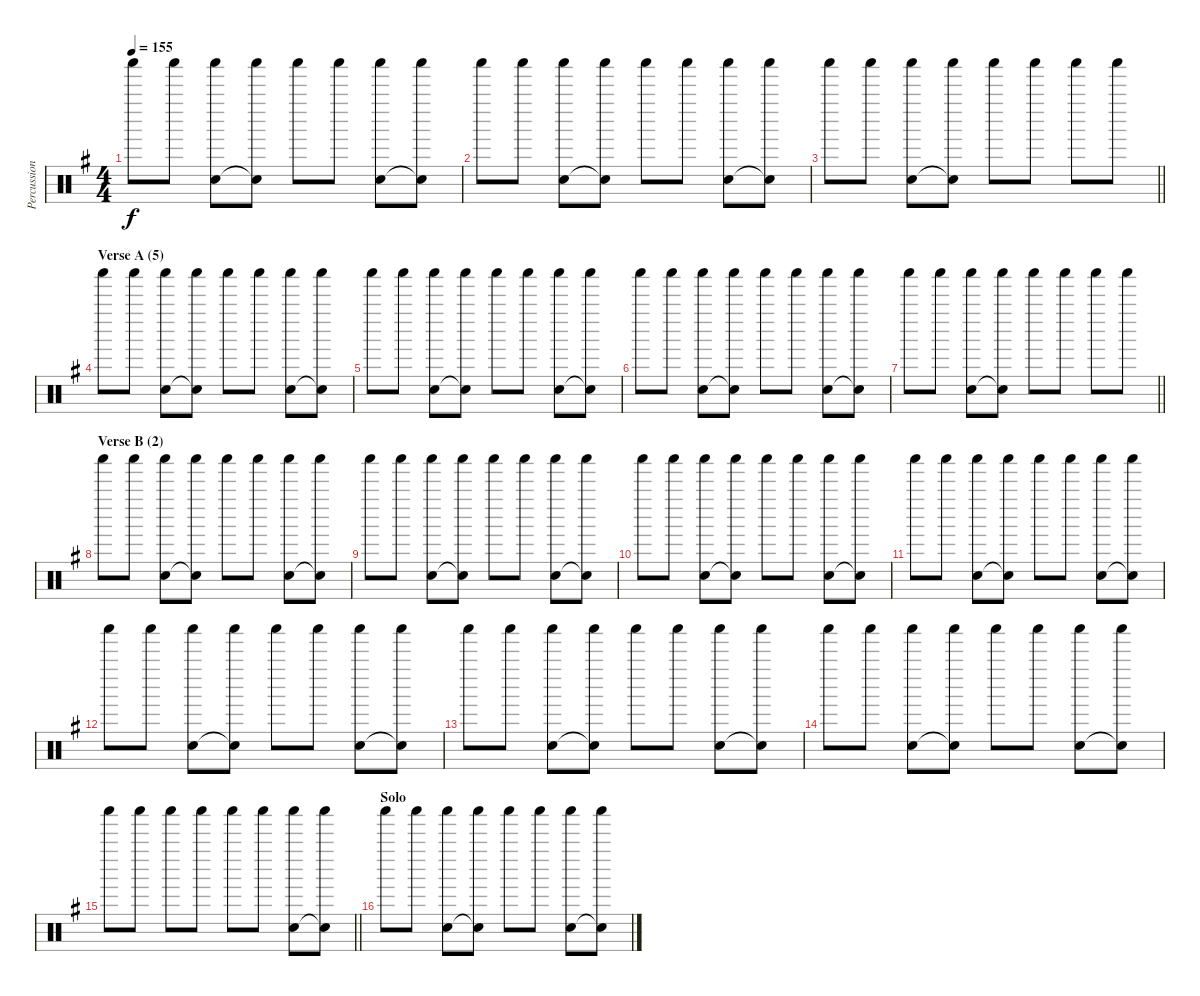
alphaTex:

\track ("Percussion" "Percussion") {instrument percussion}
\staff {score}
\articulation defaults
\ts (4 4)
\tempo 155
\clef neutral
\ks eminor "Shaker (hit)".8{dy f} "Shaker (hit)".8
("Hand Clap (hit)" "Shaker (hit)").8 ("Snare (hit)"{t} "Shaker (hit)").8 "Shaker (hit)".8 "Shaker (hit)".8 ("Hand Clap (hit)" "Shaker (hit)").8 ("Snare (hit)"{t} "Shaker (hit)").8 |
"Shaker (hit)".8 "Shaker (hit)".8 ("Hand Clap (hit)" "Shaker (hit)").8 ("Snare (hit)"{t} "Shaker (hit)").8 "Shaker (hit)".8 "Shaker (hit)".8 ("Hand Clap (hit)" "Shaker (hit)").8 ("Snare (hit)"{t} "Shaker (hit)").8 |
\barLineRight lightlight "Shaker (hit)".8 "Shaker (hit)".8
("Hand Clap (hit)" "Shaker (hit)").8 ("Snare (hit)"{t} "Shaker (hit)").8 "Shaker (hit)".8 "Shaker (hit)".8 "Shaker (hit)".8 "Shaker (hit)".8 |
\section ("" "Verse A (5)")
"Shaker (hit)".8 "Shaker (hit)".8 ("Hand Clap (hit)" "Shaker (hit)").8 ("Snare (hit)"{t} "Shaker (hit)").8 "Shaker (hit)".8 "Shaker (hit)".8 ("Hand Clap (hit)" "Shaker (hit)").8 ("Snare (hit)"{t} "Shaker (hit)").8 |
"Shaker (hit)".8 "Shaker (hit)".8 ("Hand Clap (hit)" "Shaker (hit)").8 ("Snare (hit)"{t} "Shaker (hit)").8 "Shaker (hit)".8 "Shaker (hit)".8 ("Hand Clap (hit)" "Shaker (hit)").8 ("Snare (hit)"{t} "Shaker (hit)").8 |
"Shaker (hit)".8 "Shaker (hit)".8 ("Hand Clap (hit)" "Shaker (hit)").8 ("Snare (hit)"{t} "Shaker (hit)").8 "Shaker (hit)".8 "Shaker (hit)".8 ("Hand Clap (hit)" "Shaker (hit)").8 ("Snare (hit)"{t} "Shaker (hit)").8 |
\barLineRight lightlight "Shaker (hit)".8 "Shaker (hit)".8
("Hand Clap (hit)" "Shaker (hit)").8 ("Snare (hit)"{t} "Shaker (hit)").8 "Shaker (hit)".8 "Shaker (hit)".8 "Shaker (hit)".8 "Shaker (hit)".8 |
\section ("" "Verse B (2)")
"Shaker (hit)".8 "Shaker (hit)".8 ("Hand Clap (hit)" "Shaker (hit)").8 ("Snare (hit)"{t} "Shaker (hit)").8 "Shaker (hit)".8 "Shaker (hit)".8 ("Hand Clap (hit)" "Shaker (hit)").8 ("Snare (hit)"{t} "Shaker (hit)").8 |
"Shaker (hit)".8 "Shaker (hit)".8 ("Hand Clap (hit)" "Shaker (hit)").8 ("Snare (hit)"{t} "Shaker (hit)").8 "Shaker (hit)".8 "Shaker (hit)".8 ("Hand Clap (hit)" "Shaker (hit)").8 ("Snare (hit)"{t} "Shaker (hit)").8 |
"Shaker (hit)".8 "Shaker (hit)".8 ("Hand Clap (hit)" "Shaker (hit)").8 ("Snare (hit)"{t} "Shaker (hit)").8 "Shaker (hit)".8 "Shaker (hit)".8 ("Hand Clap (hit)" "Shaker (hit)").8 ("Snare (hit)"{t} "Shaker (hit)").8 |
"Shaker (hit)".8 "Shaker (hit)".8 ("Hand Clap (hit)" "Shaker (hit)").8 ("Snare (hit)"{t} "Shaker (hit)").8 "Shaker (hit)".8 "Shaker (hit)".8 ("Hand Clap (hit)" "Shaker (hit)").8 ("Snare (hit)"{t} "Shaker (hit)").8 |
"Shaker (hit)".8 "Shaker (hit)".8 ("Hand Clap (hit)" "Shaker (hit)").8 ("Snare (hit)"{t} "Shaker (hit)").8 "Shaker (hit)".8 "Shaker (hit)".8 ("Hand Clap (hit)" "Shaker (hit)").8 ("Snare (hit)"{t} "Shaker (hit)").8 |
"Shaker (hit)".8 "Shaker (hit)".8 ("Hand Clap (hit)" "Shaker (hit)").8 ("Snare (hit)"{t} "Shaker (hit)").8 "Shaker (hit)".8 "Shaker (hit)".8 ("Hand Clap (hit)" "Shaker (hit)").8 ("Snare (hit)"{t} "Shaker (hit)").8 |
"Shaker (hit)".8 "Shaker (hit)".8 ("Hand Clap (hit)" "Shaker (hit)").8 ("Snare (hit)"{t} "Shaker (hit)").8 "Shaker (hit)".8 "Shaker (hit)".8 ("Hand Clap (hit)" "Shaker (hit)").8 ("Snare (hit)"{t} "Shaker (hit)").8 |
\barLineRight lightlight "Shaker (hit)".8 "Shaker (hit)".8 "Shaker (hit)".8 "Shaker (hit)".8 "Shaker (hit)".8 "Shaker (hit)".8
("Hand Clap (hit)" "Shaker (hit)").8 ("Snare (hit)"{t} "Shaker (hit)").8 |
\section ("" "Solo")
"Shaker (hit)".8 "Shaker (hit)".8 ("Hand Clap (hit)" "Shaker (hit)").8 ("Snare (hit)"{t} "Shaker (hit)").8 "Shaker (hit)".8 "Shaker (hit)".8 ("Hand Clap (hit)" "Shaker (hit)").8 ("Snare (hit)"{t} "Shaker (hit)").8
